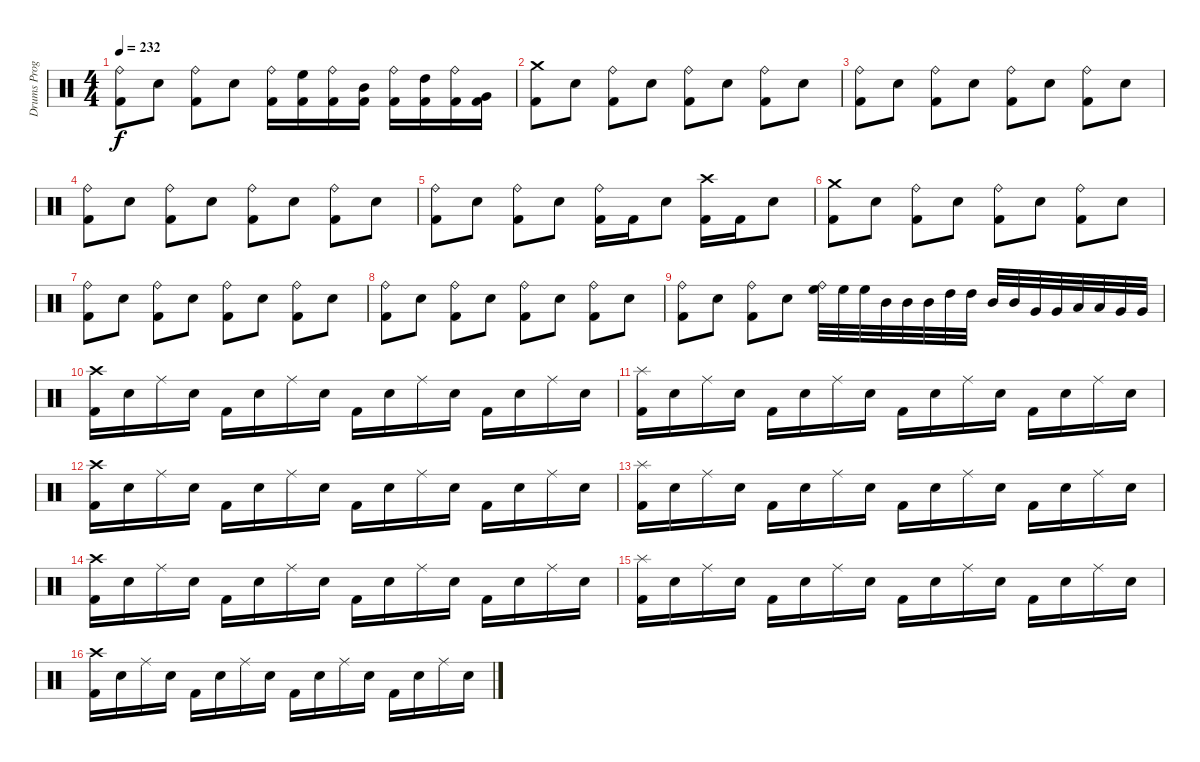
\track ("Drums Programming" "Drums Prog") {instrument percussion}
\staff {score}
\articulation defaults
\ts (4 4)
\tempo 232
\clef neutral
\ks c
("Ride (bell)" "Kick (hit) 2").8{dy f} "Electric Snare (hit)".8 ("Ride (bell)" "Kick (hit) 2").8 "Electric Snare (hit)".8 ("Ride (bell)" "Kick (hit) 2").16 ("High Floor Tom (hit)" "Kick (hit) 2").16 ("Ride (bell)" "Kick (hit) 2").16 ("Mid Tom (hit)" "Kick (hit) 2").16 ("Ride (bell)" "Kick (hit) 2").16 ("High Tom (hit)" "Kick (hit) 2").16 ("Ride (bell)" "Kick (hit) 2").16 ("Very Low Tom (hit)" "Kick (hit) 2").16 |
("Crash medium (hit)" "Kick (hit) 2").8 "Electric Snare (hit)".8 ("Ride (bell)" "Kick (hit) 2").8 "Electric Snare (hit)".8 ("Ride (bell)" "Kick (hit) 2").8 "Electric Snare (hit)".8 ("Ride (bell)" "Kick (hit) 2").8 "Electric Snare (hit)".8 |
("Ride (bell)" "Kick (hit) 2").8 "Electric Snare (hit)".8 ("Ride (bell)" "Kick (hit) 2").8 "Electric Snare (hit)".8 ("Ride (bell)" "Kick (hit) 2").8 "Electric Snare (hit)".8 ("Ride (bell)" "Kick (hit) 2").8 "Electric Snare (hit)".8 |
("Ride (bell)" "Kick (hit) 2").8 "Electric Snare (hit)".8 ("Ride (bell)" "Kick (hit) 2").8 "Electric Snare (hit)".8 ("Ride (bell)" "Kick (hit) 2").8 "Electric Snare (hit)".8 ("Ride (bell)" "Kick (hit) 2").8 "Electric Snare (hit)".8 |
("Ride (bell)" "Kick (hit) 2").8 "Electric Snare (hit)".8 ("Ride (bell)" "Kick (hit) 2").8 "Electric Snare (hit)".8 ("Ride (bell)" "Kick (hit) 2").16 "Kick (hit) 2".16 "Electric Snare (hit)".8 ("Crash high (hit)" "Kick (hit) 2").16 "Kick (hit) 2".16 "Electric Snare (hit)".8 |
("Crash medium (hit)" "Kick (hit) 2").8 "Electric Snare (hit)".8 ("Ride (bell)" "Kick (hit) 2").8 "Electric Snare (hit)".8 ("Ride (bell)" "Kick (hit) 2").8 "Electric Snare (hit)".8 ("Ride (bell)" "Kick (hit) 2").8 "Electric Snare (hit)".8 |
("Ride (bell)" "Kick (hit) 2").8 "Electric Snare (hit)".8 ("Ride (bell)" "Kick (hit) 2").8 "Electric Snare (hit)".8 ("Ride (bell)" "Kick (hit) 2").8 "Electric Snare (hit)".8 ("Ride (bell)" "Kick (hit) 2").8 "Electric Snare (hit)".8 |
("Ride (bell)" "Kick (hit) 2").8 "Electric Snare (hit)".8 ("Ride (bell)" "Kick (hit) 2").8 "Electric Snare (hit)".8 ("Ride (bell)" "Kick (hit) 2").8 "Electric Snare (hit)".8 ("Ride (bell)" "Kick (hit) 2").8 "Electric Snare (hit)".8 |
("Ride (bell)" "Kick (hit) 2").8 "Electric Snare (hit)".8 ("Ride (bell)" "Kick (hit) 2").8 "Electric Snare (hit)".8 ("Ride (bell)" "High Floor Tom (hit)").32 "High Floor Tom (hit)".32 "High Floor Tom (hit)".32 "Mid Tom (hit)".32 "Mid Tom (hit)".32 "Mid Tom (hit)".32 "High Tom (hit)".32 "High Tom (hit)".32 "Mid Tom (hit)".32 "Mid Tom (hit)".32 "Very Low Tom (hit)".32 "Very Low Tom (hit)".32 "Low Floor Tom (hit)".32 "Low Floor Tom (hit)".32 "Very Low Tom (hit)".32 "Very Low Tom (hit)".32 |
("Crash high (hit)" "Kick (hit) 2").16 "Electric Snare (hit)".16 "Ride (middle)".16 "Electric Snare (hit)".16 "Kick (hit) 2".16 "Electric Snare (hit)".16 "Ride (middle)".16 "Electric Snare (hit)".16 "Kick (hit) 2".16 "Electric Snare (hit)".16 "Ride (middle)".16 "Electric Snare (hit)".16 "Kick (hit) 2".16 "Electric Snare (hit)".16 "Ride (middle)".16 "Electric Snare (hit)".16 |
("Splash (hit)" "Kick (hit) 2").16 "Electric Snare (hit)".16 "Ride (middle)".16 "Electric Snare (hit)".16 "Kick (hit) 2".16 "Electric Snare (hit)".16 "Ride (middle)".16 "Electric Snare (hit)".16 "Kick (hit) 2".16 "Electric Snare (hit)".16 "Ride (middle)".16 "Electric Snare (hit)".16 "Kick (hit) 2".16 "Electric Snare (hit)".16 "Ride (middle)".16 "Electric Snare (hit)".16 |
("Crash high (hit)" "Kick (hit) 2").16 "Electric Snare (hit)".16 "Ride (middle)".16 "Electric Snare (hit)".16 "Kick (hit) 2".16 "Electric Snare (hit)".16 "Ride (middle)".16 "Electric Snare (hit)".16 "Kick (hit) 2".16 "Electric Snare (hit)".16 "Ride (middle)".16 "Electric Snare (hit)".16 "Kick (hit) 2".16 "Electric Snare (hit)".16 "Ride (middle)".16 "Electric Snare (hit)".16 |
("Splash (hit)" "Kick (hit) 2").16 "Electric Snare (hit)".16 "Ride (middle)".16 "Electric Snare (hit)".16 "Kick (hit) 2".16 "Electric Snare (hit)".16 "Ride (middle)".16 "Electric Snare (hit)".16 "Kick (hit) 2".16 "Electric Snare (hit)".16 "Ride (middle)".16 "Electric Snare (hit)".16 "Kick (hit) 2".16 "Electric Snare (hit)".16 "Ride (middle)".16 "Electric Snare (hit)".16 |
("Crash high (hit)" "Kick (hit) 2").16 "Electric Snare (hit)".16 "Ride (middle)".16 "Electric Snare (hit)".16 "Kick (hit) 2".16 "Electric Snare (hit)".16 "Ride (middle)".16 "Electric Snare (hit)".16 "Kick (hit) 2".16 "Electric Snare (hit)".16 "Ride (middle)".16 "Electric Snare (hit)".16 "Kick (hit) 2".16 "Electric Snare (hit)".16 "Ride (middle)".16 "Electric Snare (hit)".16 |
("Splash (hit)" "Kick (hit) 2").16 "Electric Snare (hit)".16 "Ride (middle)".16 "Electric Snare (hit)".16 "Kick (hit) 2".16 "Electric Snare (hit)".16 "Ride (middle)".16 "Electric Snare (hit)".16 "Kick (hit) 2".16 "Electric Snare (hit)".16 "Ride (middle)".16 "Electric Snare (hit)".16 "Kick (hit) 2".16 "Electric Snare (hit)".16 "Ride (middle)".16 "Electric Snare (hit)".16 |
("Crash high (hit)" "Kick (hit) 2").16 "Electric Snare (hit)".16 "Ride (middle)".16 "Electric Snare (hit)".16 "Kick (hit) 2".16 "Electric Snare (hit)".16 "Ride (middle)".16 "Electric Snare (hit)".16 "Kick (hit) 2".16 "Electric Snare (hit)".16 "Ride (middle)".16 "Electric Snare (hit)".16 "Kick (hit) 2".16 "Electric Snare (hit)".16 "Ride (middle)".16 "Electric Snare (hit)".16
